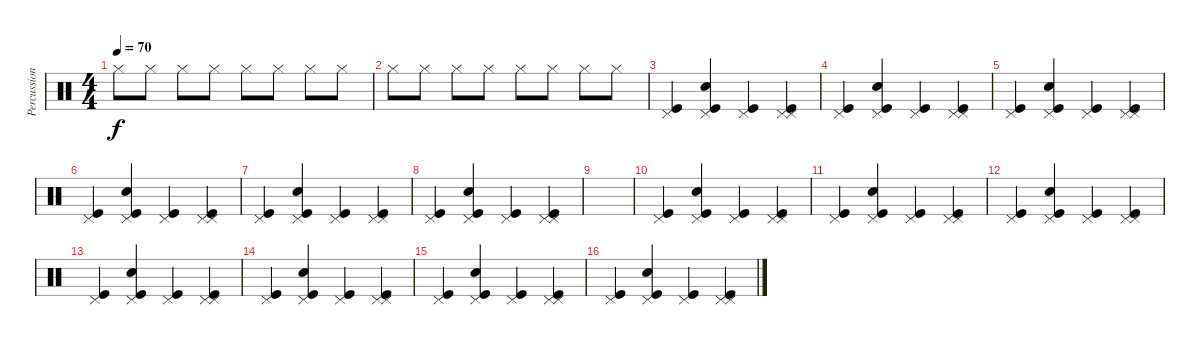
\track ("Percussion" "Percussion") {instrument percussion}
\staff {score}
\articulation defaults
\ts (4 4)
\tempo 70
\clef neutral
\ks c "Hi-Hat (closed)".8{dy f} "Hi-Hat (closed)".8 "Hi-Hat (closed)".8 "Hi-Hat (closed)".8 "Hi-Hat (closed)".8 "Hi-Hat (closed)".8 "Hi-Hat (closed)".8 "Hi-Hat (closed)".8
|
"Hi-Hat (closed)".8 "Hi-Hat (closed)".8 "Hi-Hat (closed)".8 "Hi-Hat (closed)".8 "Hi-Hat (closed)".8 "Hi-Hat (closed)".8 "Hi-Hat (closed)".8 "Hi-Hat (closed)".8 |
("Kick (hit)" "Pedal Hi-Hat (hit)").4 ("Kick (hit)" "Snare (hit) 2" "Pedal Hi-Hat (hit)").4 ("Kick (hit)" "Pedal Hi-Hat (hit)").4 ("Kick (hit)" "Pedal Hi-Hat (hit)" "Pedal Hi-Hat (hit)").4 |
("Kick (hit)" "Pedal Hi-Hat (hit)").4 ("Kick (hit)" "Snare (hit) 2" "Pedal Hi-Hat (hit)").4 ("Kick (hit)" "Pedal Hi-Hat (hit)").4 ("Kick (hit)" "Pedal Hi-Hat (hit)" "Pedal Hi-Hat (hit)").4 |
("Kick (hit)" "Pedal Hi-Hat (hit)").4 ("Kick (hit)" "Snare (hit) 2" "Pedal Hi-Hat (hit)").4 ("Kick (hit)" "Pedal Hi-Hat (hit)").4 ("Kick (hit)" "Pedal Hi-Hat (hit)" "Pedal Hi-Hat (hit)").4 |
("Kick (hit)" "Pedal Hi-Hat (hit)").4 ("Kick (hit)" "Snare (hit) 2" "Pedal Hi-Hat (hit)").4 ("Kick (hit)" "Pedal Hi-Hat (hit)").4 ("Kick (hit)" "Pedal Hi-Hat (hit)" "Pedal Hi-Hat (hit)").4 |
("Kick (hit)" "Pedal Hi-Hat (hit)").4 ("Kick (hit)" "Snare (hit) 2" "Pedal Hi-Hat (hit)").4 ("Kick (hit)" "Pedal Hi-Hat (hit)").4 ("Kick (hit)" "Pedal Hi-Hat (hit)" "Pedal Hi-Hat (hit)").4 |
("Kick (hit)" "Pedal Hi-Hat (hit)").4 ("Kick (hit)" "Snare (hit) 2" "Pedal Hi-Hat (hit)").4 ("Kick (hit)" "Pedal Hi-Hat (hit)").4 ("Kick (hit)" "Pedal Hi-Hat (hit)" "Pedal Hi-Hat (hit)").4 |
|
("Kick (hit)" "Pedal Hi-Hat (hit)").4 ("Kick (hit)" "Snare (hit) 2" "Pedal Hi-Hat (hit)").4 ("Kick (hit)" "Pedal Hi-Hat (hit)").4 ("Kick (hit)" "Pedal Hi-Hat (hit)" "Pedal Hi-Hat (hit)").4 |
("Kick (hit)" "Pedal Hi-Hat (hit)").4 ("Kick (hit)" "Snare (hit) 2" "Pedal Hi-Hat (hit)").4 ("Kick (hit)" "Pedal Hi-Hat (hit)").4 ("Kick (hit)" "Pedal Hi-Hat (hit)" "Pedal Hi-Hat (hit)").4 |
("Kick (hit)" "Pedal Hi-Hat (hit)").4 ("Kick (hit)" "Snare (hit) 2" "Pedal Hi-Hat (hit)").4 ("Kick (hit)" "Pedal Hi-Hat (hit)").4 ("Kick (hit)" "Pedal Hi-Hat (hit)" "Pedal Hi-Hat (hit)").4 |
("Kick (hit)" "Pedal Hi-Hat (hit)").4 ("Kick (hit)" "Snare (hit) 2" "Pedal Hi-Hat (hit)").4 ("Kick (hit)" "Pedal Hi-Hat (hit)").4 ("Kick (hit)" "Pedal Hi-Hat (hit)" "Pedal Hi-Hat (hit)").4 |
("Kick (hit)" "Pedal Hi-Hat (hit)").4 ("Kick (hit)" "Snare (hit) 2" "Pedal Hi-Hat (hit)").4 ("Kick (hit)" "Pedal Hi-Hat (hit)").4 ("Kick (hit)" "Pedal Hi-Hat (hit)" "Pedal Hi-Hat (hit)").4 |
("Kick (hit)" "Pedal Hi-Hat (hit)").4 ("Kick (hit)" "Snare (hit) 2" "Pedal Hi-Hat (hit)").4 ("Kick (hit)" "Pedal Hi-Hat (hit)").4 ("Kick (hit)" "Pedal Hi-Hat (hit)" "Pedal Hi-Hat (hit)").4 |
("Kick (hit)" "Pedal Hi-Hat (hit)").4 ("Kick (hit)" "Snare (hit) 2" "Pedal Hi-Hat (hit)").4 ("Kick (hit)" "Pedal Hi-Hat (hit)").4 ("Kick (hit)" "Pedal Hi-Hat (hit)" "Pedal Hi-Hat (hit)").4
